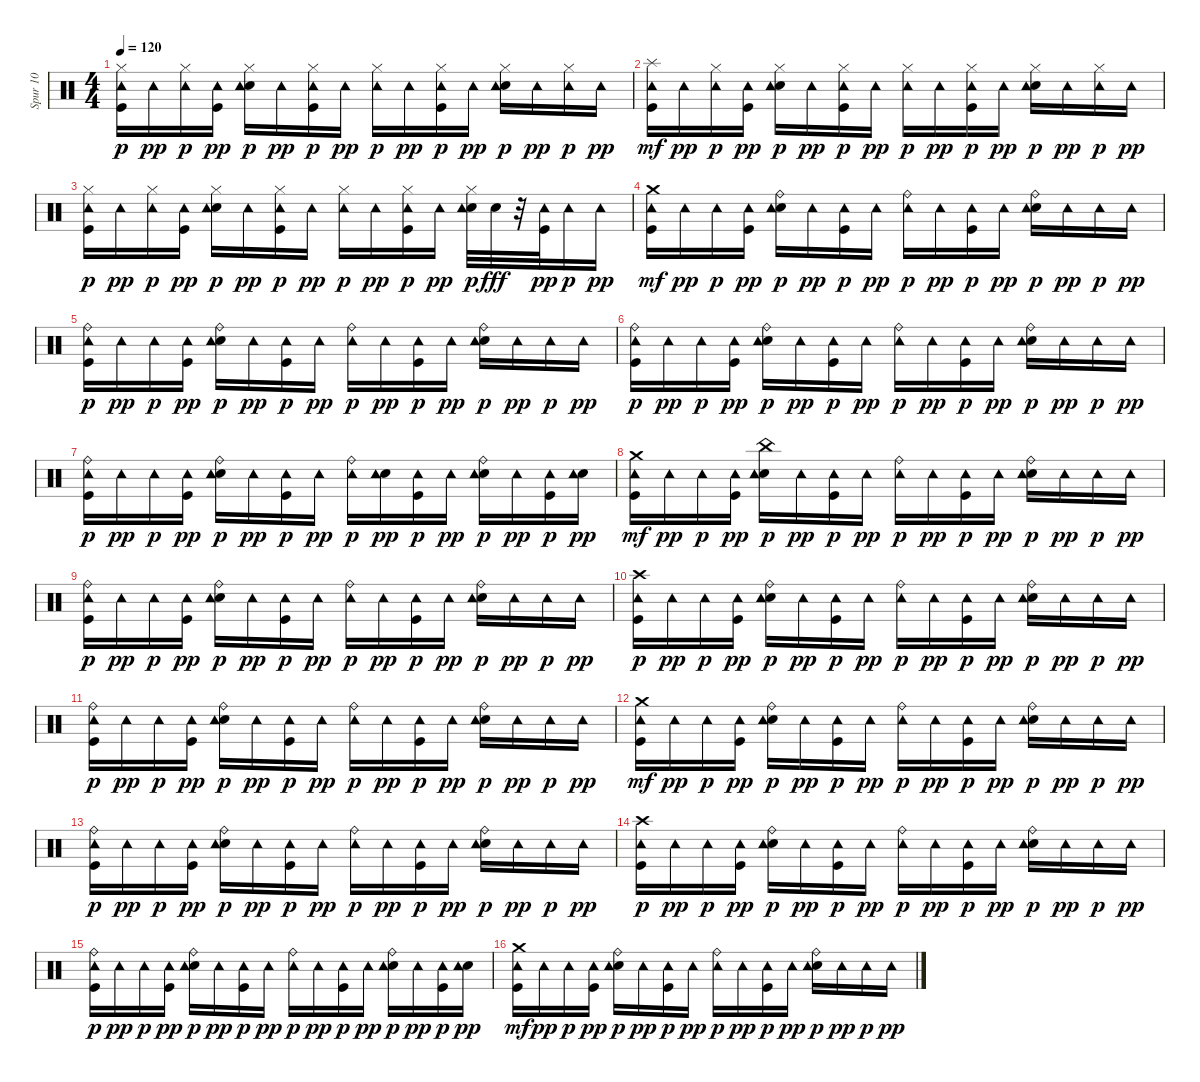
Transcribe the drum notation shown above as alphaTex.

\track ("Spur 10" "Spur 10") {instrument percussion}
\staff {score}
\articulation defaults
\ts (4 4)
\tempo 120
\clef neutral
\ks c
("Kick (hit)" "Hi-Hat (closed)" "Tambourine (hit)").16{dy p} "Tambourine (hit)".16{dy pp} ("Hi-Hat (closed)" "Tambourine (hit)").16{dy p} ("Kick (hit)" "Tambourine (hit)").16{dy pp} ("Electric Snare (hit)" "Hi-Hat (closed)" "Tambourine (hit)").16{dy p} "Tambourine (hit)".16{dy pp} ("Kick (hit)" "Hi-Hat (closed)" "Tambourine (hit)").16{dy p} "Tambourine (hit)".16{dy pp} ("Hi-Hat (closed)" "Tambourine (hit)").16{dy p} "Tambourine (hit)".16{dy pp} ("Kick (hit)" "Hi-Hat (closed)" "Tambourine (hit)").16{dy p} "Tambourine (hit)".16{dy pp} ("Electric Snare (hit)" "Hi-Hat (closed)" "Tambourine (hit)").16{dy p} "Tambourine (hit)".16{dy pp} ("Hi-Hat (closed)" "Tambourine (hit)").16{dy p} "Tambourine (hit)".16{dy pp} |
("Kick (hit)" "Tambourine (hit)" "Splash (hit)").16{dy mf} "Tambourine (hit)".16{dy pp} ("Hi-Hat (closed)" "Tambourine (hit)").16{dy p} ("Kick (hit)" "Tambourine (hit)").16{dy pp} ("Electric Snare (hit)" "Hi-Hat (closed)" "Tambourine (hit)").16{dy p} "Tambourine (hit)".16{dy pp} ("Kick (hit)" "Hi-Hat (closed)" "Tambourine (hit)").16{dy p} "Tambourine (hit)".16{dy pp} ("Hi-Hat (closed)" "Tambourine (hit)").16{dy p} "Tambourine (hit)".16{dy pp} ("Kick (hit)" "Hi-Hat (closed)" "Tambourine (hit)").16{dy p} "Tambourine (hit)".16{dy pp} ("Electric Snare (hit)" "Hi-Hat (closed)" "Tambourine (hit)").16{dy p} "Tambourine (hit)".16{dy pp} ("Hi-Hat (closed)" "Tambourine (hit)").16{dy p} "Tambourine (hit)".16{dy pp} |
("Kick (hit)" "Hi-Hat (closed)" "Tambourine (hit)").16{dy p} "Tambourine (hit)".16{dy pp} ("Hi-Hat (closed)" "Tambourine (hit)").16{dy p} ("Kick (hit)" "Tambourine (hit)").16{dy pp} ("Electric Snare (hit)" "Hi-Hat (closed)" "Tambourine (hit)").16{dy p} "Tambourine (hit)".16{dy pp} ("Kick (hit)" "Hi-Hat (closed)" "Tambourine (hit)").16{dy p} "Tambourine (hit)".16{dy pp} ("Hi-Hat (closed)" "Tambourine (hit)").16{dy p} "Tambourine (hit)".16{dy pp} ("Kick (hit)" "Hi-Hat (closed)" "Tambourine (hit)").16{dy p} "Tambourine (hit)".16{dy pp} ("Electric Snare (hit)" "Hi-Hat (closed)" "Tambourine (hit)").32{dy p} "Electric Snare (hit)".32{dy fff} r.32 ("Kick (hit)" "Tambourine (hit)").32{dy pp} "Tambourine (hit)".16{dy p} "Tambourine (hit)".16{dy pp} |
("Kick (hit)" "Tambourine (hit)" "Crash medium (hit)").16{dy mf} "Tambourine (hit)".16{dy pp} "Tambourine (hit)".16{dy p} ("Kick (hit)" "Tambourine (hit)").16{dy pp} ("Electric Snare (hit)" "Ride (bell)" "Tambourine (hit)").16{dy p} "Tambourine (hit)".16{dy pp} ("Kick (hit)" "Tambourine (hit)").16{dy p} "Tambourine (hit)".16{dy pp} ("Ride (bell)" "Tambourine (hit)").16{dy p} "Tambourine (hit)".16{dy pp} ("Kick (hit)" "Tambourine (hit)").16{dy p} "Tambourine (hit)".16{dy pp} ("Electric Snare (hit)" "Ride (bell)" "Tambourine (hit)").16{dy p} "Tambourine (hit)".16{dy pp} "Tambourine (hit)".16{dy p} "Tambourine (hit)".16{dy pp} |
("Kick (hit)" "Ride (bell)" "Tambourine (hit)").16{dy p} "Tambourine (hit)".16{dy pp} "Tambourine (hit)".16{dy p} ("Kick (hit)" "Tambourine (hit)").16{dy pp} ("Electric Snare (hit)" "Ride (bell)" "Tambourine (hit)").16{dy p} "Tambourine (hit)".16{dy pp} ("Kick (hit)" "Tambourine (hit)").16{dy p} "Tambourine (hit)".16{dy pp} ("Ride (bell)" "Tambourine (hit)").16{dy p} "Tambourine (hit)".16{dy pp} ("Kick (hit)" "Tambourine (hit)").16{dy p} "Tambourine (hit)".16{dy pp} ("Electric Snare (hit)" "Ride (bell)" "Tambourine (hit)").16{dy p} "Tambourine (hit)".16{dy pp} "Tambourine (hit)".16{dy p} "Tambourine (hit)".16{dy pp} |
("Kick (hit)" "Ride (bell)" "Tambourine (hit)").16{dy p} "Tambourine (hit)".16{dy pp} "Tambourine (hit)".16{dy p} ("Kick (hit)" "Tambourine (hit)").16{dy pp} ("Electric Snare (hit)" "Ride (bell)" "Tambourine (hit)").16{dy p} "Tambourine (hit)".16{dy pp} ("Kick (hit)" "Tambourine (hit)").16{dy p} "Tambourine (hit)".16{dy pp} ("Ride (bell)" "Tambourine (hit)").16{dy p} "Tambourine (hit)".16{dy pp} ("Kick (hit)" "Tambourine (hit)").16{dy p} "Tambourine (hit)".16{dy pp} ("Electric Snare (hit)" "Ride (bell)" "Tambourine (hit)").16{dy p} "Tambourine (hit)".16{dy pp} "Tambourine (hit)".16{dy p} "Tambourine (hit)".16{dy pp} |
("Kick (hit)" "Ride (bell)" "Tambourine (hit)").16{dy p} "Tambourine (hit)".16{dy pp} "Tambourine (hit)".16{dy p} ("Kick (hit)" "Tambourine (hit)").16{dy pp} ("Electric Snare (hit)" "Ride (bell)" "Tambourine (hit)").16{dy p} "Tambourine (hit)".16{dy pp} ("Kick (hit)" "Tambourine (hit)").16{dy p} "Tambourine (hit)".16{dy pp} ("Ride (bell)" "Tambourine (hit)").16{dy p} ("Electric Snare (hit)" "Tambourine (hit)").16{dy pp} ("Kick (hit)" "Tambourine (hit)").16{dy p} "Tambourine (hit)".16{dy pp} ("Electric Snare (hit)" "Ride (bell)" "Tambourine (hit)").16{dy p} "Tambourine (hit)".16{dy pp} ("Kick (hit)" "Tambourine (hit)").16{dy p} ("Electric Snare (hit)" "Tambourine (hit)").16{dy pp} |
("Kick (hit)" "Tambourine (hit)" "Crash medium (hit)").16{dy mf} "Tambourine (hit)".16{dy pp} "Tambourine (hit)".16{dy p} ("Kick (hit)" "Tambourine (hit)").16{dy pp} ("Electric Snare (hit)" "China (hit)" "Tambourine (hit)").16{dy p} "Tambourine (hit)".16{dy pp} ("Kick (hit)" "Tambourine (hit)").16{dy p} "Tambourine (hit)".16{dy pp} ("Ride (bell)" "Tambourine (hit)").16{dy p} "Tambourine (hit)".16{dy pp} ("Kick (hit)" "Tambourine (hit)").16{dy p} "Tambourine (hit)".16{dy pp} ("Electric Snare (hit)" "Ride (bell)" "Tambourine (hit)").16{dy p} "Tambourine (hit)".16{dy pp} "Tambourine (hit)".16{dy p} "Tambourine (hit)".16{dy pp} |
("Kick (hit)" "Ride (bell)" "Tambourine (hit)").16{dy p} "Tambourine (hit)".16{dy pp} "Tambourine (hit)".16{dy p} ("Kick (hit)" "Tambourine (hit)").16{dy pp} ("Electric Snare (hit)" "Ride (bell)" "Tambourine (hit)").16{dy p} "Tambourine (hit)".16{dy pp} ("Kick (hit)" "Tambourine (hit)").16{dy p} "Tambourine (hit)".16{dy pp} ("Ride (bell)" "Tambourine (hit)").16{dy p} "Tambourine (hit)".16{dy pp} ("Kick (hit)" "Tambourine (hit)").16{dy p} "Tambourine (hit)".16{dy pp} ("Electric Snare (hit)" "Ride (bell)" "Tambourine (hit)").16{dy p} "Tambourine (hit)".16{dy pp} "Tambourine (hit)".16{dy p} "Tambourine (hit)".16{dy pp} |
("Kick (hit)" "Crash high (hit)" "Tambourine (hit)").16{dy p} "Tambourine (hit)".16{dy pp} "Tambourine (hit)".16{dy p} ("Kick (hit)" "Tambourine (hit)").16{dy pp} ("Electric Snare (hit)" "Ride (bell)" "Tambourine (hit)").16{dy p} "Tambourine (hit)".16{dy pp} ("Kick (hit)" "Tambourine (hit)").16{dy p} "Tambourine (hit)".16{dy pp} ("Ride (bell)" "Tambourine (hit)").16{dy p} "Tambourine (hit)".16{dy pp} ("Kick (hit)" "Tambourine (hit)").16{dy p} "Tambourine (hit)".16{dy pp} ("Electric Snare (hit)" "Ride (bell)" "Tambourine (hit)").16{dy p} "Tambourine (hit)".16{dy pp} "Tambourine (hit)".16{dy p} "Tambourine (hit)".16{dy pp} |
("Kick (hit)" "Ride (bell)" "Tambourine (hit)").16{dy p} "Tambourine (hit)".16{dy pp} "Tambourine (hit)".16{dy p} ("Kick (hit)" "Tambourine (hit)").16{dy pp} ("Electric Snare (hit)" "Ride (bell)" "Tambourine (hit)").16{dy p} "Tambourine (hit)".16{dy pp} ("Kick (hit)" "Tambourine (hit)").16{dy p} "Tambourine (hit)".16{dy pp} ("Ride (bell)" "Tambourine (hit)").16{dy p} "Tambourine (hit)".16{dy pp} ("Kick (hit)" "Tambourine (hit)").16{dy p} "Tambourine (hit)".16{dy pp} ("Electric Snare (hit)" "Ride (bell)" "Tambourine (hit)").16{dy p} "Tambourine (hit)".16{dy pp} "Tambourine (hit)".16{dy p} "Tambourine (hit)".16{dy pp} |
("Kick (hit)" "Tambourine (hit)" "Crash medium (hit)").16{dy mf} "Tambourine (hit)".16{dy pp} "Tambourine (hit)".16{dy p} ("Kick (hit)" "Tambourine (hit)").16{dy pp} ("Electric Snare (hit)" "Ride (bell)" "Tambourine (hit)").16{dy p} "Tambourine (hit)".16{dy pp} ("Kick (hit)" "Tambourine (hit)").16{dy p} "Tambourine (hit)".16{dy pp} ("Ride (bell)" "Tambourine (hit)").16{dy p} "Tambourine (hit)".16{dy pp} ("Kick (hit)" "Tambourine (hit)").16{dy p} "Tambourine (hit)".16{dy pp} ("Electric Snare (hit)" "Ride (bell)" "Tambourine (hit)").16{dy p} "Tambourine (hit)".16{dy pp} "Tambourine (hit)".16{dy p} "Tambourine (hit)".16{dy pp} |
("Kick (hit)" "Ride (bell)" "Tambourine (hit)").16{dy p} "Tambourine (hit)".16{dy pp} "Tambourine (hit)".16{dy p} ("Kick (hit)" "Tambourine (hit)").16{dy pp} ("Electric Snare (hit)" "Ride (bell)" "Tambourine (hit)").16{dy p} "Tambourine (hit)".16{dy pp} ("Kick (hit)" "Tambourine (hit)").16{dy p} "Tambourine (hit)".16{dy pp} ("Ride (bell)" "Tambourine (hit)").16{dy p} "Tambourine (hit)".16{dy pp} ("Kick (hit)" "Tambourine (hit)").16{dy p} "Tambourine (hit)".16{dy pp} ("Electric Snare (hit)" "Ride (bell)" "Tambourine (hit)").16{dy p} "Tambourine (hit)".16{dy pp} "Tambourine (hit)".16{dy p} "Tambourine (hit)".16{dy pp} |
("Kick (hit)" "Crash high (hit)" "Tambourine (hit)").16{dy p} "Tambourine (hit)".16{dy pp} "Tambourine (hit)".16{dy p} ("Kick (hit)" "Tambourine (hit)").16{dy pp} ("Electric Snare (hit)" "Ride (bell)" "Tambourine (hit)").16{dy p} "Tambourine (hit)".16{dy pp} ("Kick (hit)" "Tambourine (hit)").16{dy p} "Tambourine (hit)".16{dy pp} ("Ride (bell)" "Tambourine (hit)").16{dy p} "Tambourine (hit)".16{dy pp} ("Kick (hit)" "Tambourine (hit)").16{dy p} "Tambourine (hit)".16{dy pp} ("Electric Snare (hit)" "Ride (bell)" "Tambourine (hit)").16{dy p} "Tambourine (hit)".16{dy pp} "Tambourine (hit)".16{dy p} "Tambourine (hit)".16{dy pp} |
("Kick (hit)" "Ride (bell)" "Tambourine (hit)").16{dy p} "Tambourine (hit)".16{dy pp} "Tambourine (hit)".16{dy p} ("Kick (hit)" "Tambourine (hit)").16{dy pp} ("Electric Snare (hit)" "Ride (bell)" "Tambourine (hit)").16{dy p} "Tambourine (hit)".16{dy pp} ("Kick (hit)" "Tambourine (hit)").16{dy p} "Tambourine (hit)".16{dy pp} ("Ride (bell)" "Tambourine (hit)").16{dy p} "Tambourine (hit)".16{dy pp} ("Kick (hit)" "Tambourine (hit)").16{dy p} "Tambourine (hit)".16{dy pp} ("Electric Snare (hit)" "Ride (bell)" "Tambourine (hit)").16{dy p} "Tambourine (hit)".16{dy pp} ("Kick (hit)" "Tambourine (hit)").16{dy p} ("Electric Snare (hit)" "Tambourine (hit)").16{dy pp} |
("Kick (hit)" "Tambourine (hit)" "Crash medium (hit)").16{dy mf} "Tambourine (hit)".16{dy pp} "Tambourine (hit)".16{dy p} ("Kick (hit)" "Tambourine (hit)").16{dy pp} ("Electric Snare (hit)" "Ride (bell)" "Tambourine (hit)").16{dy p} "Tambourine (hit)".16{dy pp} ("Kick (hit)" "Tambourine (hit)").16{dy p} "Tambourine (hit)".16{dy pp} ("Ride (bell)" "Tambourine (hit)").16{dy p} "Tambourine (hit)".16{dy pp} ("Kick (hit)" "Tambourine (hit)").16{dy p} "Tambourine (hit)".16{dy pp} ("Electric Snare (hit)" "Ride (bell)" "Tambourine (hit)").16{dy p} "Tambourine (hit)".16{dy pp} "Tambourine (hit)".16{dy p} "Tambourine (hit)".16{dy pp}
